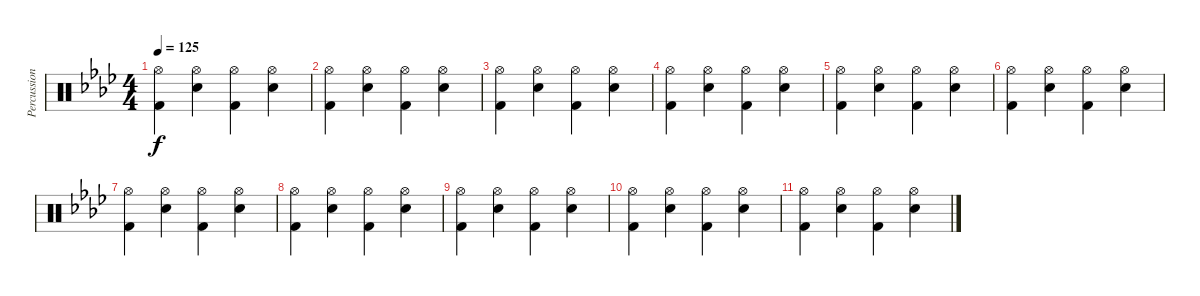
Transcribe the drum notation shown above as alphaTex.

\track ("Percussion" "Percussion") {instrument percussion}
\staff {score}
\articulation defaults
\ts (4 4)
\tempo 125
\clef neutral
\ks fminor
("Hi-Hat (open)" "Kick (hit) 2").4{dy f} ("Hi-Hat (open)" "Snare (hit) 2").4 ("Hi-Hat (open)" "Kick (hit) 2").4 ("Hi-Hat (open)" "Snare (hit) 2").4 |
("Hi-Hat (open)" "Kick (hit) 2").4 ("Hi-Hat (open)" "Snare (hit) 2").4 ("Hi-Hat (open)" "Kick (hit) 2").4 ("Hi-Hat (open)" "Snare (hit) 2").4 |
("Hi-Hat (open)" "Kick (hit) 2").4 ("Hi-Hat (open)" "Snare (hit) 2").4 ("Hi-Hat (open)" "Kick (hit) 2").4 ("Hi-Hat (open)" "Snare (hit) 2").4 |
("Hi-Hat (open)" "Kick (hit) 2").4 ("Hi-Hat (open)" "Snare (hit) 2").4 ("Hi-Hat (open)" "Kick (hit) 2").4 ("Hi-Hat (open)" "Snare (hit) 2").4 |
("Hi-Hat (open)" "Kick (hit) 2").4 ("Hi-Hat (open)" "Snare (hit) 2").4 ("Hi-Hat (open)" "Kick (hit) 2").4 ("Hi-Hat (open)" "Snare (hit) 2").4 |
("Hi-Hat (open)" "Kick (hit) 2").4 ("Hi-Hat (open)" "Snare (hit) 2").4 ("Hi-Hat (open)" "Kick (hit) 2").4 ("Hi-Hat (open)" "Snare (hit) 2").4 |
("Hi-Hat (open)" "Kick (hit) 2").4 ("Hi-Hat (open)" "Snare (hit) 2").4 ("Hi-Hat (open)" "Kick (hit) 2").4 ("Hi-Hat (open)" "Snare (hit) 2").4 |
("Hi-Hat (open)" "Kick (hit) 2").4 ("Hi-Hat (open)" "Snare (hit) 2").4 ("Hi-Hat (open)" "Kick (hit) 2").4 ("Hi-Hat (open)" "Snare (hit) 2").4 |
("Hi-Hat (open)" "Kick (hit) 2").4 ("Hi-Hat (open)" "Snare (hit) 2").4 ("Hi-Hat (open)" "Kick (hit) 2").4 ("Hi-Hat (open)" "Snare (hit) 2").4 |
("Hi-Hat (open)" "Kick (hit) 2").4 ("Hi-Hat (open)" "Snare (hit) 2").4 ("Hi-Hat (open)" "Kick (hit) 2").4 ("Hi-Hat (open)" "Snare (hit) 2").4 |
("Hi-Hat (open)" "Kick (hit) 2").4 ("Hi-Hat (open)" "Snare (hit) 2").4 ("Hi-Hat (open)" "Kick (hit) 2").4 ("Hi-Hat (open)" "Snare (hit) 2").4
